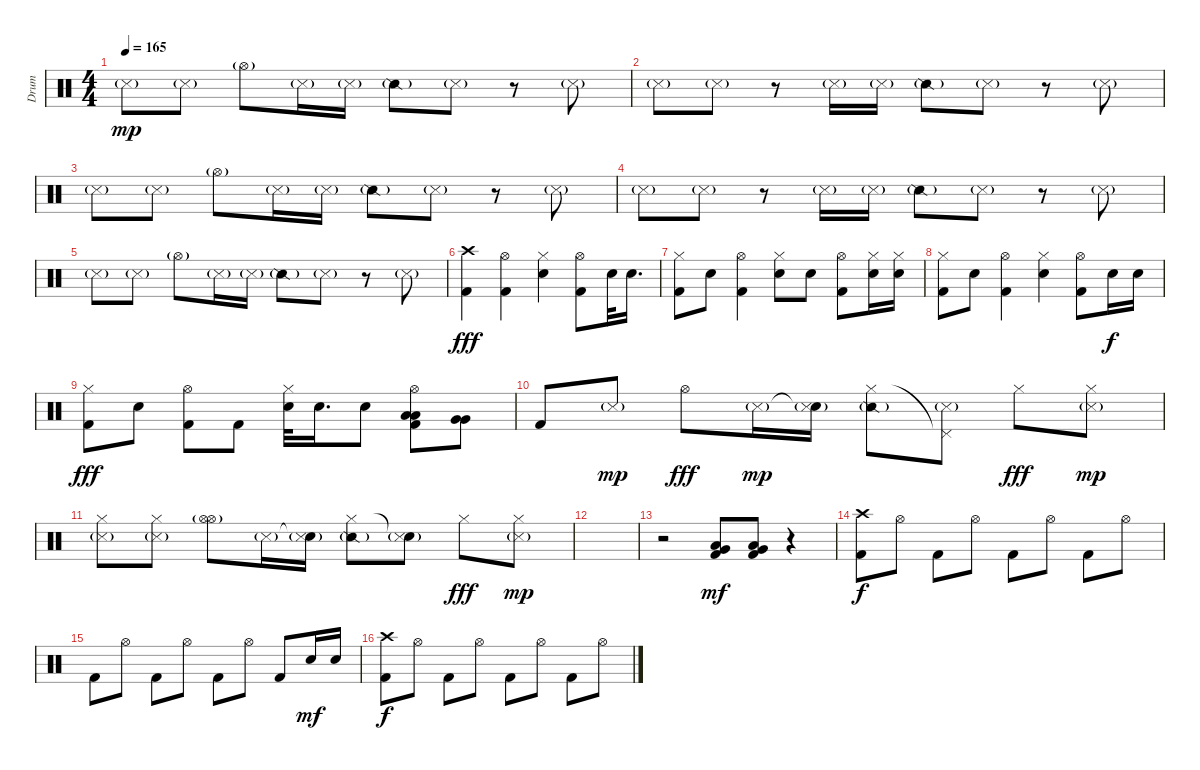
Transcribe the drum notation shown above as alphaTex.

\track ("Drum" "Drum") {instrument percussion}
\staff {score}
\articulation defaults
\ts (4 4)
\tempo 165
\clef neutral
\ks c "Snare (side stick) 3"{g}.8{dy mp} "Snare (side stick) 3"{g}.8 "Hi-Hat (open)"{g}.8 "Snare (side stick) 3"{g}.16 "Snare (side stick) 3"{g}.16 "Snare (side stick) 2"{g}.8 "Snare (side stick) 3"{g}.8
r.8 "Snare (side stick) 3"{g}.8 |
"Snare (side stick) 3"{g}.8 "Snare (side stick) 3"{g}.8 r.8 "Snare (side stick) 3"{g}.16 "Snare (side stick) 3"{g}.16 "Snare (side stick) 2"{g}.8 "Snare (side stick) 3"{g}.8 r.8 "Snare (side stick) 3"{g}.8 |
"Snare (side stick) 3"{g}.8 "Snare (side stick) 3"{g}.8 "Hi-Hat (open)"{g}.8 "Snare (side stick) 3"{g}.16 "Snare (side stick) 3"{g}.16 "Snare (side stick) 2"{g}.8 "Snare (side stick) 3"{g}.8 r.8 "Snare (side stick) 3"{g}.8 |
"Snare (side stick) 3"{g}.8 "Snare (side stick) 3"{g}.8 r.8 "Snare (side stick) 3"{g}.16 "Snare (side stick) 3"{g}.16 "Snare (side stick) 2"{g}.8 "Snare (side stick) 3"{g}.8 r.8 "Snare (side stick) 3"{g}.8 |
"Snare (side stick) 3"{g}.8 "Snare (side stick) 3"{g}.8 "Hi-Hat (open)"{g}.8 "Snare (side stick) 3"{g}.16 "Snare (side stick) 3"{g}.16 "Snare (side stick) 2"{g}.8 "Snare (side stick) 3"{g}.8 r.8 "Snare (side stick) 3"{g}.8 |
("Crash high (hit)" "Kick (hit) 2").4{dy fff} ("Hi-Hat (open)" "Kick (hit) 2").4 ("Hi-Hat (closed)" "Electric Snare (hit)").4 ("Hi-Hat (open)" "Kick (hit) 2").8 "Electric Snare (hit)".32 "Electric Snare (hit)".16{d} |
("Hi-Hat (closed)" "Kick (hit) 2").8 "Electric Snare (hit)".8 ("Hi-Hat (open)" "Kick (hit) 2").4 ("Hi-Hat (closed)" "Electric Snare (hit)").8 "Electric Snare (hit)".8 ("Hi-Hat (open)" "Kick (hit) 2").8 ("Hi-Hat (closed)" "Electric Snare (hit)").16 ("Hi-Hat (closed)" "Electric Snare (hit)").16 |
("Hi-Hat (closed)" "Kick (hit) 2").8 "Electric Snare (hit)".8 ("Hi-Hat (open)" "Kick (hit) 2").4 ("Hi-Hat (closed)" "Electric Snare (hit)").4 ("Hi-Hat (open)" "Kick (hit) 2").8 "Electric Snare (hit)".16{dy f} "Electric Snare (hit)".16 |
("Hi-Hat (closed)" "Kick (hit) 2").8{dy fff} "Electric Snare (hit)".8 ("Hi-Hat (open)" "Kick (hit) 2").8 "Kick (hit) 2".8 ("Hi-Hat (closed)" "Electric Snare (hit)").32 "Electric Snare (hit)".16{d} "Electric Snare (hit)".8 ("Hi-Hat (open)" "Low Tom (hit)" "Low Tom (hit)" "Kick (hit) 2").8 ("Very Low Tom (hit)" "Very Low Tom (hit)").8 |
"Kick (hit) 2".8 "Snare (side stick) 3"{g}.8{dy mp} "Hi-Hat (open)".8{dy fff} "Snare (side stick) 3"{g}.16{dy mp} ("Snare (hit)"{t} "Snare (side stick) 3"{g}).16 ("Hi-Hat (closed)" "Snare (side stick) 2"{g}).8 ("Pedal Hi-Hat (hit)"{t} "Snare (side stick) 3"{g}).8 "Hi-Hat (closed)".8{dy fff} ("Hi-Hat (closed)" "Snare (side stick) 3"{g}).8{dy mp} |
("Hi-Hat (closed)" "Snare (side stick) 3"{g}).8 ("Hi-Hat (closed)" "Snare (side stick) 3"{g}).8 ("Hi-Hat (open)" "Hi-Hat (open)"{g}).8 "Snare (side stick) 3"{g}.16 ("Snare (hit)"{t} "Snare (side stick) 3"{g}).16 ("Hi-Hat (closed)" "Snare (side stick) 2"{g}).8 ("Snare (hit)"{t} "Snare (side stick) 3"{g}).8 "Hi-Hat (closed)".8{dy fff} ("Hi-Hat (closed)" "Snare (side stick) 3"{g}).8{dy mp} |
|
r.2 ("Low Tom (hit)" "Very Low Tom (hit)" "Kick (hit) 2").8{dy mf} ("Low Tom (hit)" "Very Low Tom (hit)" "Kick (hit) 2").8 r.4 |
("Crash high (hit)" "Kick (hit) 2").8{dy f} "Hi-Hat (open)".8 "Kick (hit) 2".8 "Hi-Hat (open)".8 "Kick (hit) 2".8 "Hi-Hat (open)".8 "Kick (hit) 2".8 "Hi-Hat (open)".8 |
"Kick (hit) 2".8 "Hi-Hat (open)".8 "Kick (hit) 2".8 "Hi-Hat (open)".8 "Kick (hit) 2".8 "Hi-Hat (open)".8 "Kick (hit) 2".8 "Electric Snare (hit)".16{dy mf} "Electric Snare (hit)".16 |
("Crash high (hit)" "Kick (hit) 2").8{dy f} "Hi-Hat (open)".8 "Kick (hit) 2".8 "Hi-Hat (open)".8 "Kick (hit) 2".8 "Hi-Hat (open)".8 "Kick (hit) 2".8 "Hi-Hat (open)".8
